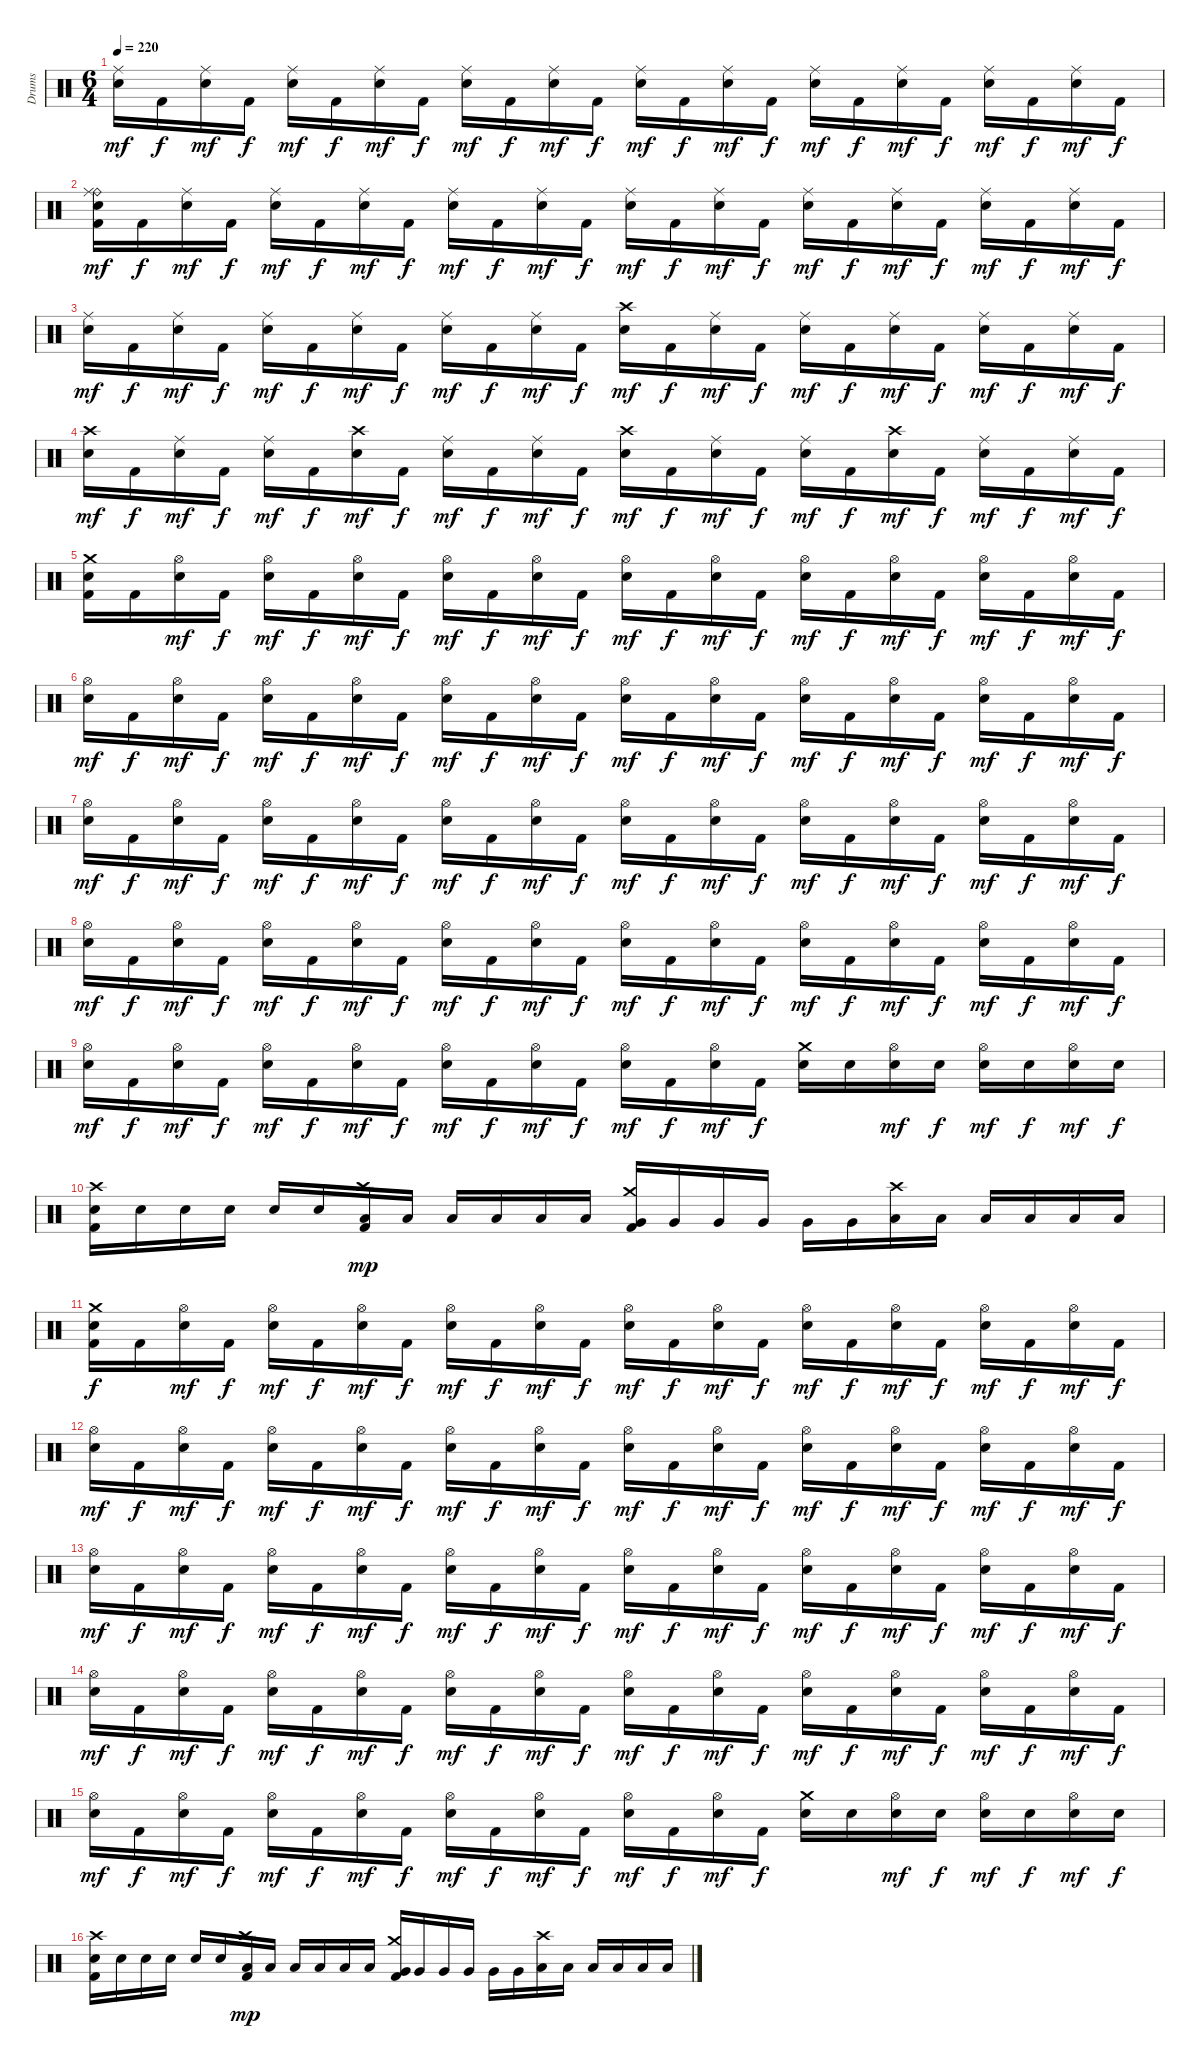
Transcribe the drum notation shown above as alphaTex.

\track ("Drums" "Drums") {instrument percussion}
\staff {score}
\articulation defaults
\ts (6 4)
\tempo 220
\clef neutral
\ks c
("Ride (middle)" "Electric Snare (hit)").16{dy mf} "Kick (hit) 2".16{dy f} ("Ride (middle)" "Electric Snare (hit)").16{dy mf} "Kick (hit) 2".16{dy f} ("Ride (middle)" "Electric Snare (hit)").16{dy mf} "Kick (hit) 2".16{dy f} ("Ride (middle)" "Electric Snare (hit)").16{dy mf} "Kick (hit) 2".16{dy f} ("Ride (middle)" "Electric Snare (hit)").16{dy mf} "Kick (hit) 2".16{dy f} ("Ride (middle)" "Electric Snare (hit)").16{dy mf} "Kick (hit) 2".16{dy f} ("Ride (middle)" "Electric Snare (hit)").16{dy mf} "Kick (hit) 2".16{dy f} ("Ride (middle)" "Electric Snare (hit)").16{dy mf} "Kick (hit) 2".16{dy f} ("Ride (middle)" "Electric Snare (hit)").16{dy mf} "Kick (hit) 2".16{dy f} ("Ride (middle)" "Electric Snare (hit)").16{dy mf} "Kick (hit) 2".16{dy f} ("Ride (middle)" "Electric Snare (hit)").16{dy mf} "Kick (hit) 2".16{dy f} ("Ride (middle)" "Electric Snare (hit)").16{dy mf} "Kick (hit) 2".16{dy f} |
("Ride (bell)" "Ride (middle)" "Electric Snare (hit)" "Kick (hit) 2").16{dy mf} "Kick (hit) 2".16{dy f} ("Ride (middle)" "Electric Snare (hit)").16{dy mf} "Kick (hit) 2".16{dy f} ("Ride (middle)" "Electric Snare (hit)").16{dy mf} "Kick (hit) 2".16{dy f} ("Ride (middle)" "Electric Snare (hit)").16{dy mf} "Kick (hit) 2".16{dy f} ("Ride (middle)" "Electric Snare (hit)").16{dy mf} "Kick (hit) 2".16{dy f} ("Ride (middle)" "Electric Snare (hit)").16{dy mf} "Kick (hit) 2".16{dy f} ("Ride (middle)" "Electric Snare (hit)").16{dy mf} "Kick (hit) 2".16{dy f} ("Ride (middle)" "Electric Snare (hit)").16{dy mf} "Kick (hit) 2".16{dy f} ("Ride (middle)" "Electric Snare (hit)").16{dy mf} "Kick (hit) 2".16{dy f} ("Ride (middle)" "Electric Snare (hit)").16{dy mf} "Kick (hit) 2".16{dy f} ("Ride (middle)" "Electric Snare (hit)").16{dy mf} "Kick (hit) 2".16{dy f} ("Ride (middle)" "Electric Snare (hit)").16{dy mf} "Kick (hit) 2".16{dy f} |
("Ride (middle)" "Electric Snare (hit)").16{dy mf} "Kick (hit) 2".16{dy f} ("Ride (middle)" "Electric Snare (hit)").16{dy mf} "Kick (hit) 2".16{dy f} ("Ride (middle)" "Electric Snare (hit)").16{dy mf} "Kick (hit) 2".16{dy f} ("Ride (middle)" "Electric Snare (hit)").16{dy mf} "Kick (hit) 2".16{dy f} ("Ride (middle)" "Electric Snare (hit)").16{dy mf} "Kick (hit) 2".16{dy f} ("Ride (middle)" "Electric Snare (hit)").16{dy mf} "Kick (hit) 2".16{dy f} ("Crash high (hit)" "Electric Snare (hit)").16{dy mf} "Kick (hit) 2".16{dy f} ("Ride (middle)" "Electric Snare (hit)").16{dy mf} "Kick (hit) 2".16{dy f} ("Ride (middle)" "Electric Snare (hit)").16{dy mf} "Kick (hit) 2".16{dy f} ("Ride (middle)" "Electric Snare (hit)").16{dy mf} "Kick (hit) 2".16{dy f} ("Ride (middle)" "Electric Snare (hit)").16{dy mf} "Kick (hit) 2".16{dy f} ("Ride (middle)" "Electric Snare (hit)").16{dy mf} "Kick (hit) 2".16{dy f} |
("Crash high (hit)" "Electric Snare (hit)").16{dy mf} "Kick (hit) 2".16{dy f} ("Ride (middle)" "Electric Snare (hit)").16{dy mf} "Kick (hit) 2".16{dy f} ("Ride (middle)" "Electric Snare (hit)").16{dy mf} "Kick (hit) 2".16{dy f} ("Crash high (hit)" "Electric Snare (hit)").16{dy mf} "Kick (hit) 2".16{dy f} ("Ride (middle)" "Electric Snare (hit)").16{dy mf} "Kick (hit) 2".16{dy f} ("Ride (middle)" "Electric Snare (hit)").16{dy mf} "Kick (hit) 2".16{dy f} ("Crash high (hit)" "Electric Snare (hit)").16{dy mf} "Kick (hit) 2".16{dy f} ("Ride (middle)" "Electric Snare (hit)").16{dy mf} "Kick (hit) 2".16{dy f} ("Ride (middle)" "Electric Snare (hit)").16{dy mf} "Kick (hit) 2".16{dy f} ("Crash high (hit)" "Electric Snare (hit)").16{dy mf} "Kick (hit) 2".16{dy f} ("Ride (middle)" "Electric Snare (hit)").16{dy mf} "Kick (hit) 2".16{dy f} ("Ride (middle)" "Electric Snare (hit)").16{dy mf} "Kick (hit) 2".16{dy f} |
("Crash medium (hit)" "Electric Snare (hit)" "Kick (hit) 2").16 "Kick (hit) 2".16 ("Hi-Hat (open)" "Electric Snare (hit)").16{dy mf} "Kick (hit) 2".16{dy f} ("Hi-Hat (open)" "Electric Snare (hit)").16{dy mf} "Kick (hit) 2".16{dy f} ("Hi-Hat (open)" "Electric Snare (hit)").16{dy mf} "Kick (hit) 2".16{dy f} ("Hi-Hat (open)" "Electric Snare (hit)").16{dy mf} "Kick (hit) 2".16{dy f} ("Hi-Hat (open)" "Electric Snare (hit)").16{dy mf} "Kick (hit) 2".16{dy f} ("Hi-Hat (open)" "Electric Snare (hit)").16{dy mf} "Kick (hit) 2".16{dy f} ("Hi-Hat (open)" "Electric Snare (hit)").16{dy mf} "Kick (hit) 2".16{dy f} ("Hi-Hat (open)" "Electric Snare (hit)").16{dy mf} "Kick (hit) 2".16{dy f} ("Hi-Hat (open)" "Electric Snare (hit)").16{dy mf} "Kick (hit) 2".16{dy f} ("Hi-Hat (open)" "Electric Snare (hit)").16{dy mf} "Kick (hit) 2".16{dy f} ("Hi-Hat (open)" "Electric Snare (hit)").16{dy mf} "Kick (hit) 2".16{dy f} |
("Hi-Hat (open)" "Electric Snare (hit)").16{dy mf} "Kick (hit) 2".16{dy f} ("Hi-Hat (open)" "Electric Snare (hit)").16{dy mf} "Kick (hit) 2".16{dy f} ("Hi-Hat (open)" "Electric Snare (hit)").16{dy mf} "Kick (hit) 2".16{dy f} ("Hi-Hat (open)" "Electric Snare (hit)").16{dy mf} "Kick (hit) 2".16{dy f} ("Hi-Hat (open)" "Electric Snare (hit)").16{dy mf} "Kick (hit) 2".16{dy f} ("Hi-Hat (open)" "Electric Snare (hit)").16{dy mf} "Kick (hit) 2".16{dy f} ("Hi-Hat (open)" "Electric Snare (hit)").16{dy mf} "Kick (hit) 2".16{dy f} ("Hi-Hat (open)" "Electric Snare (hit)").16{dy mf} "Kick (hit) 2".16{dy f} ("Hi-Hat (open)" "Electric Snare (hit)").16{dy mf} "Kick (hit) 2".16{dy f} ("Hi-Hat (open)" "Electric Snare (hit)").16{dy mf} "Kick (hit) 2".16{dy f} ("Hi-Hat (open)" "Electric Snare (hit)").16{dy mf} "Kick (hit) 2".16{dy f} ("Hi-Hat (open)" "Electric Snare (hit)").16{dy mf} "Kick (hit) 2".16{dy f} |
("Hi-Hat (open)" "Electric Snare (hit)").16{dy mf} "Kick (hit) 2".16{dy f} ("Hi-Hat (open)" "Electric Snare (hit)").16{dy mf} "Kick (hit) 2".16{dy f} ("Hi-Hat (open)" "Electric Snare (hit)").16{dy mf} "Kick (hit) 2".16{dy f} ("Hi-Hat (open)" "Electric Snare (hit)").16{dy mf} "Kick (hit) 2".16{dy f} ("Hi-Hat (open)" "Electric Snare (hit)").16{dy mf} "Kick (hit) 2".16{dy f} ("Hi-Hat (open)" "Electric Snare (hit)").16{dy mf} "Kick (hit) 2".16{dy f} ("Hi-Hat (open)" "Electric Snare (hit)").16{dy mf} "Kick (hit) 2".16{dy f} ("Hi-Hat (open)" "Electric Snare (hit)").16{dy mf} "Kick (hit) 2".16{dy f} ("Hi-Hat (open)" "Electric Snare (hit)").16{dy mf} "Kick (hit) 2".16{dy f} ("Hi-Hat (open)" "Electric Snare (hit)").16{dy mf} "Kick (hit) 2".16{dy f} ("Hi-Hat (open)" "Electric Snare (hit)").16{dy mf} "Kick (hit) 2".16{dy f} ("Hi-Hat (open)" "Electric Snare (hit)").16{dy mf} "Kick (hit) 2".16{dy f} |
("Hi-Hat (open)" "Electric Snare (hit)").16{dy mf} "Kick (hit) 2".16{dy f} ("Hi-Hat (open)" "Electric Snare (hit)").16{dy mf} "Kick (hit) 2".16{dy f} ("Hi-Hat (open)" "Electric Snare (hit)").16{dy mf} "Kick (hit) 2".16{dy f} ("Hi-Hat (open)" "Electric Snare (hit)").16{dy mf} "Kick (hit) 2".16{dy f} ("Hi-Hat (open)" "Electric Snare (hit)").16{dy mf} "Kick (hit) 2".16{dy f} ("Hi-Hat (open)" "Electric Snare (hit)").16{dy mf} "Kick (hit) 2".16{dy f} ("Hi-Hat (open)" "Electric Snare (hit)").16{dy mf} "Kick (hit) 2".16{dy f} ("Hi-Hat (open)" "Electric Snare (hit)").16{dy mf} "Kick (hit) 2".16{dy f} ("Hi-Hat (open)" "Electric Snare (hit)").16{dy mf} "Kick (hit) 2".16{dy f} ("Hi-Hat (open)" "Electric Snare (hit)").16{dy mf} "Kick (hit) 2".16{dy f} ("Hi-Hat (open)" "Electric Snare (hit)").16{dy mf} "Kick (hit) 2".16{dy f} ("Hi-Hat (open)" "Electric Snare (hit)").16{dy mf} "Kick (hit) 2".16{dy f} |
("Hi-Hat (open)" "Electric Snare (hit)").16{dy mf} "Kick (hit) 2".16{dy f} ("Hi-Hat (open)" "Electric Snare (hit)").16{dy mf} "Kick (hit) 2".16{dy f} ("Hi-Hat (open)" "Electric Snare (hit)").16{dy mf} "Kick (hit) 2".16{dy f} ("Hi-Hat (open)" "Electric Snare (hit)").16{dy mf} "Kick (hit) 2".16{dy f} ("Hi-Hat (open)" "Electric Snare (hit)").16{dy mf} "Kick (hit) 2".16{dy f} ("Hi-Hat (open)" "Electric Snare (hit)").16{dy mf} "Kick (hit) 2".16{dy f} ("Hi-Hat (open)" "Electric Snare (hit)").16{dy mf} "Kick (hit) 2".16{dy f} ("Hi-Hat (open)" "Electric Snare (hit)").16{dy mf} "Kick (hit) 2".16{dy f} ("Crash medium (hit)" "Electric Snare (hit)").16 "Electric Snare (hit)".16 ("Hi-Hat (open)" "Electric Snare (hit)").16{dy mf} "Electric Snare (hit)".16{dy f} ("Hi-Hat (open)" "Electric Snare (hit)").16{dy mf} "Electric Snare (hit)".16{dy f} ("Hi-Hat (open)" "Electric Snare (hit)").16{dy mf} "Electric Snare (hit)".16{dy f} |
("Crash high (hit)" "Electric Snare (hit)" "Kick (hit) 2").16 "Electric Snare (hit)".16 "Electric Snare (hit)".16 "Electric Snare (hit)".16 "Electric Snare (hit)".16 "Electric Snare (hit)".16 ("Crash high (hit)" "Low Tom (hit)" "Kick (hit) 2").16{dy mp} "Low Tom (hit)".16 "Low Tom (hit)".16 "Low Tom (hit)".16 "Low Tom (hit)".16 "Low Tom (hit)".16 ("Crash medium (hit)" "Very Low Tom (hit)" "Kick (hit) 2").16 "Very Low Tom (hit)".16 "Very Low Tom (hit)".16 "Very Low Tom (hit)".16 "Very Low Tom (hit)".16 "Very Low Tom (hit)".16 ("Crash high (hit)" "Low Floor Tom (hit)").16 "Low Floor Tom (hit)".16 "Low Floor Tom (hit)".16 "Low Floor Tom (hit)".16 "Low Floor Tom (hit)".16 "Low Floor Tom (hit)".16 |
("Crash medium (hit)" "Electric Snare (hit)" "Kick (hit) 2").16{dy f} "Kick (hit) 2".16 ("Hi-Hat (open)" "Electric Snare (hit)").16{dy mf} "Kick (hit) 2".16{dy f} ("Hi-Hat (open)" "Electric Snare (hit)").16{dy mf} "Kick (hit) 2".16{dy f} ("Hi-Hat (open)" "Electric Snare (hit)").16{dy mf} "Kick (hit) 2".16{dy f} ("Hi-Hat (open)" "Electric Snare (hit)").16{dy mf} "Kick (hit) 2".16{dy f} ("Hi-Hat (open)" "Electric Snare (hit)").16{dy mf} "Kick (hit) 2".16{dy f} ("Hi-Hat (open)" "Electric Snare (hit)").16{dy mf} "Kick (hit) 2".16{dy f} ("Hi-Hat (open)" "Electric Snare (hit)").16{dy mf} "Kick (hit) 2".16{dy f} ("Hi-Hat (open)" "Electric Snare (hit)").16{dy mf} "Kick (hit) 2".16{dy f} ("Hi-Hat (open)" "Electric Snare (hit)").16{dy mf} "Kick (hit) 2".16{dy f} ("Hi-Hat (open)" "Electric Snare (hit)").16{dy mf} "Kick (hit) 2".16{dy f} ("Hi-Hat (open)" "Electric Snare (hit)").16{dy mf} "Kick (hit) 2".16{dy f} |
("Hi-Hat (open)" "Electric Snare (hit)").16{dy mf} "Kick (hit) 2".16{dy f} ("Hi-Hat (open)" "Electric Snare (hit)").16{dy mf} "Kick (hit) 2".16{dy f} ("Hi-Hat (open)" "Electric Snare (hit)").16{dy mf} "Kick (hit) 2".16{dy f} ("Hi-Hat (open)" "Electric Snare (hit)").16{dy mf} "Kick (hit) 2".16{dy f} ("Hi-Hat (open)" "Electric Snare (hit)").16{dy mf} "Kick (hit) 2".16{dy f} ("Hi-Hat (open)" "Electric Snare (hit)").16{dy mf} "Kick (hit) 2".16{dy f} ("Hi-Hat (open)" "Electric Snare (hit)").16{dy mf} "Kick (hit) 2".16{dy f} ("Hi-Hat (open)" "Electric Snare (hit)").16{dy mf} "Kick (hit) 2".16{dy f} ("Hi-Hat (open)" "Electric Snare (hit)").16{dy mf} "Kick (hit) 2".16{dy f} ("Hi-Hat (open)" "Electric Snare (hit)").16{dy mf} "Kick (hit) 2".16{dy f} ("Hi-Hat (open)" "Electric Snare (hit)").16{dy mf} "Kick (hit) 2".16{dy f} ("Hi-Hat (open)" "Electric Snare (hit)").16{dy mf} "Kick (hit) 2".16{dy f} |
("Hi-Hat (open)" "Electric Snare (hit)").16{dy mf} "Kick (hit) 2".16{dy f} ("Hi-Hat (open)" "Electric Snare (hit)").16{dy mf} "Kick (hit) 2".16{dy f} ("Hi-Hat (open)" "Electric Snare (hit)").16{dy mf} "Kick (hit) 2".16{dy f} ("Hi-Hat (open)" "Electric Snare (hit)").16{dy mf} "Kick (hit) 2".16{dy f} ("Hi-Hat (open)" "Electric Snare (hit)").16{dy mf} "Kick (hit) 2".16{dy f} ("Hi-Hat (open)" "Electric Snare (hit)").16{dy mf} "Kick (hit) 2".16{dy f} ("Hi-Hat (open)" "Electric Snare (hit)").16{dy mf} "Kick (hit) 2".16{dy f} ("Hi-Hat (open)" "Electric Snare (hit)").16{dy mf} "Kick (hit) 2".16{dy f} ("Hi-Hat (open)" "Electric Snare (hit)").16{dy mf} "Kick (hit) 2".16{dy f} ("Hi-Hat (open)" "Electric Snare (hit)").16{dy mf} "Kick (hit) 2".16{dy f} ("Hi-Hat (open)" "Electric Snare (hit)").16{dy mf} "Kick (hit) 2".16{dy f} ("Hi-Hat (open)" "Electric Snare (hit)").16{dy mf} "Kick (hit) 2".16{dy f} |
("Hi-Hat (open)" "Electric Snare (hit)").16{dy mf} "Kick (hit) 2".16{dy f} ("Hi-Hat (open)" "Electric Snare (hit)").16{dy mf} "Kick (hit) 2".16{dy f} ("Hi-Hat (open)" "Electric Snare (hit)").16{dy mf} "Kick (hit) 2".16{dy f} ("Hi-Hat (open)" "Electric Snare (hit)").16{dy mf} "Kick (hit) 2".16{dy f} ("Hi-Hat (open)" "Electric Snare (hit)").16{dy mf} "Kick (hit) 2".16{dy f} ("Hi-Hat (open)" "Electric Snare (hit)").16{dy mf} "Kick (hit) 2".16{dy f} ("Hi-Hat (open)" "Electric Snare (hit)").16{dy mf} "Kick (hit) 2".16{dy f} ("Hi-Hat (open)" "Electric Snare (hit)").16{dy mf} "Kick (hit) 2".16{dy f} ("Hi-Hat (open)" "Electric Snare (hit)").16{dy mf} "Kick (hit) 2".16{dy f} ("Hi-Hat (open)" "Electric Snare (hit)").16{dy mf} "Kick (hit) 2".16{dy f} ("Hi-Hat (open)" "Electric Snare (hit)").16{dy mf} "Kick (hit) 2".16{dy f} ("Hi-Hat (open)" "Electric Snare (hit)").16{dy mf} "Kick (hit) 2".16{dy f} |
("Hi-Hat (open)" "Electric Snare (hit)").16{dy mf} "Kick (hit) 2".16{dy f} ("Hi-Hat (open)" "Electric Snare (hit)").16{dy mf} "Kick (hit) 2".16{dy f} ("Hi-Hat (open)" "Electric Snare (hit)").16{dy mf} "Kick (hit) 2".16{dy f} ("Hi-Hat (open)" "Electric Snare (hit)").16{dy mf} "Kick (hit) 2".16{dy f} ("Hi-Hat (open)" "Electric Snare (hit)").16{dy mf} "Kick (hit) 2".16{dy f} ("Hi-Hat (open)" "Electric Snare (hit)").16{dy mf} "Kick (hit) 2".16{dy f} ("Hi-Hat (open)" "Electric Snare (hit)").16{dy mf} "Kick (hit) 2".16{dy f} ("Hi-Hat (open)" "Electric Snare (hit)").16{dy mf} "Kick (hit) 2".16{dy f} ("Crash medium (hit)" "Electric Snare (hit)").16 "Electric Snare (hit)".16 ("Hi-Hat (open)" "Electric Snare (hit)").16{dy mf} "Electric Snare (hit)".16{dy f} ("Hi-Hat (open)" "Electric Snare (hit)").16{dy mf} "Electric Snare (hit)".16{dy f} ("Hi-Hat (open)" "Electric Snare (hit)").16{dy mf} "Electric Snare (hit)".16{dy f} |
("Crash high (hit)" "Electric Snare (hit)" "Kick (hit) 2").16 "Electric Snare (hit)".16 "Electric Snare (hit)".16 "Electric Snare (hit)".16 "Electric Snare (hit)".16 "Electric Snare (hit)".16 ("Crash high (hit)" "Low Tom (hit)" "Kick (hit) 2").16{dy mp} "Low Tom (hit)".16 "Low Tom (hit)".16 "Low Tom (hit)".16 "Low Tom (hit)".16 "Low Tom (hit)".16 ("Crash medium (hit)" "Very Low Tom (hit)" "Kick (hit) 2").16 "Very Low Tom (hit)".16 "Very Low Tom (hit)".16 "Very Low Tom (hit)".16 "Very Low Tom (hit)".16 "Very Low Tom (hit)".16 ("Crash high (hit)" "Low Floor Tom (hit)").16 "Low Floor Tom (hit)".16 "Low Floor Tom (hit)".16 "Low Floor Tom (hit)".16 "Low Floor Tom (hit)".16 "Low Floor Tom (hit)".16
